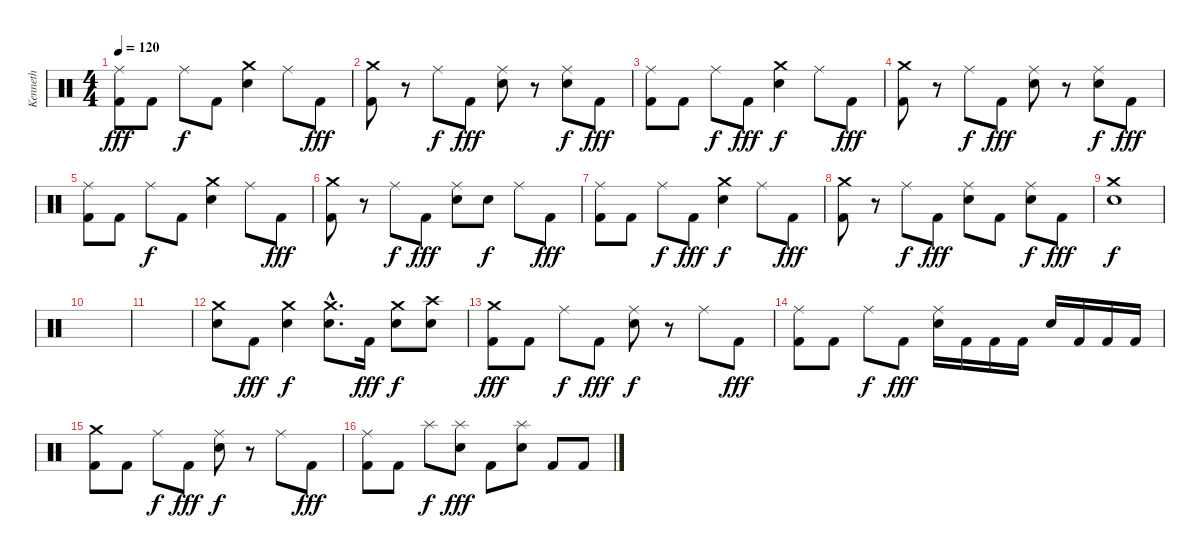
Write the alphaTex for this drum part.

\track ("Kenneth" "Kenneth") {instrument percussion}
\staff {score}
\articulation defaults
\ts (4 4)
\tempo 120
\clef neutral
\ks c
("Ride (middle)" "Kick (hit) 2").8{dy fff} "Kick (hit) 2".8 "Ride (middle)".8{dy f} "Kick (hit) 2".8 ("Crash medium (hit)" "Electric Snare (hit)").4 "Ride (middle)".8 "Kick (hit) 2".8{dy fff} |
("Crash medium (hit)" "Kick (hit) 2").8 r.8 "Ride (middle)".8{dy f} "Kick (hit) 2".8{dy fff} ("Ride (middle)" "Electric Snare (hit)").8 r.8 ("Ride (middle)" "Electric Snare (hit)").8{dy f} "Kick (hit) 2".8{dy fff} |
("Ride (middle)" "Kick (hit) 2").8 "Kick (hit) 2".8 "Ride (middle)".8{dy f} "Kick (hit) 2".8{dy fff} ("Crash medium (hit)" "Electric Snare (hit)").4{dy f} "Ride (middle)".8 "Kick (hit) 2".8{dy fff} |
("Crash medium (hit)" "Kick (hit) 2").8 r.8 "Ride (middle)".8{dy f} "Kick (hit) 2".8{dy fff} ("Ride (middle)" "Electric Snare (hit)").8 r.8 ("Ride (middle)" "Electric Snare (hit)").8{dy f} "Kick (hit) 2".8{dy fff} |
("Ride (middle)" "Kick (hit) 2").8 "Kick (hit) 2".8 "Ride (middle)".8{dy f} "Kick (hit) 2".8 ("Crash medium (hit)" "Electric Snare (hit)").4 "Ride (middle)".8 "Kick (hit) 2".8{dy fff} |
("Crash medium (hit)" "Kick (hit) 2").8 r.8 "Ride (middle)".8{dy f} "Kick (hit) 2".8{dy fff} ("Ride (middle)" "Electric Snare (hit)").8 "Electric Snare (hit)".8{dy f} "Ride (middle)".8 "Kick (hit) 2".8{dy fff} |
("Ride (middle)" "Kick (hit) 2").8 "Kick (hit) 2".8 "Ride (middle)".8{dy f} "Kick (hit) 2".8{dy fff} ("Crash medium (hit)" "Electric Snare (hit)").4{dy f} "Ride (middle)".8 "Kick (hit) 2".8{dy fff} |
("Crash medium (hit)" "Kick (hit) 2").8 r.8 "Ride (middle)".8{dy f} "Kick (hit) 2".8{dy fff} ("Ride (middle)" "Electric Snare (hit)").8 "Kick (hit) 2".8 ("Ride (middle)" "Electric Snare (hit)").8{dy f} "Kick (hit) 2".8{dy fff} |
("Crash medium (hit)" "Electric Snare (hit)").1{dy f} |
|
|
("Crash medium (hit)" "Electric Snare (hit)").8 "Kick (hit) 2".8{dy fff} ("Crash medium (hit)" "Electric Snare (hit)").4{dy f} ("Crash medium (hit)"{hac} "Electric Snare (hit)"{hac}).8{d} "Kick (hit) 2".16{dy fff} ("Crash medium (hit)" "Electric Snare (hit)").8{dy f} ("Crash high (hit)" "Electric Snare (hit)").8 |
("Crash medium (hit)" "Kick (hit) 2").8{dy fff} "Kick (hit) 2".8 "Ride (middle)".8{dy f} "Kick (hit) 2".8{dy fff} ("Ride (middle)" "Electric Snare (hit)").8{dy f} r.8 "Ride (middle)".8 "Kick (hit) 2".8{dy fff} |
("Ride (middle)" "Kick (hit) 2").8 "Kick (hit) 2".8 "Ride (middle)".8{dy f} "Kick (hit) 2".8{dy fff} ("Ride (middle)" "Electric Snare (hit)").16 "Kick (hit) 2".16 "Kick (hit) 2".16 "Kick (hit) 2".16 "Electric Snare (hit)".16 "Kick (hit) 2".16 "Kick (hit) 2".16 "Kick (hit) 2".16 |
("Crash medium (hit)" "Kick (hit) 2").8 "Kick (hit) 2".8 "Ride (middle)".8{dy f} "Kick (hit) 2".8{dy fff} ("Ride (middle)" "Electric Snare (hit)").8{dy f} r.8 "Ride (middle)".8 "Kick (hit) 2".8{dy fff} |
("Ride (middle)" "Kick (hit) 2").8 "Kick (hit) 2".8 "Splash (hit)".8{dy f} ("Splash (hit)" "Electric Snare (hit)").8{dy fff} "Kick (hit) 2".8 ("Splash (hit)" "Electric Snare (hit)").8 "Kick (hit) 2".8 "Kick (hit) 2".8
